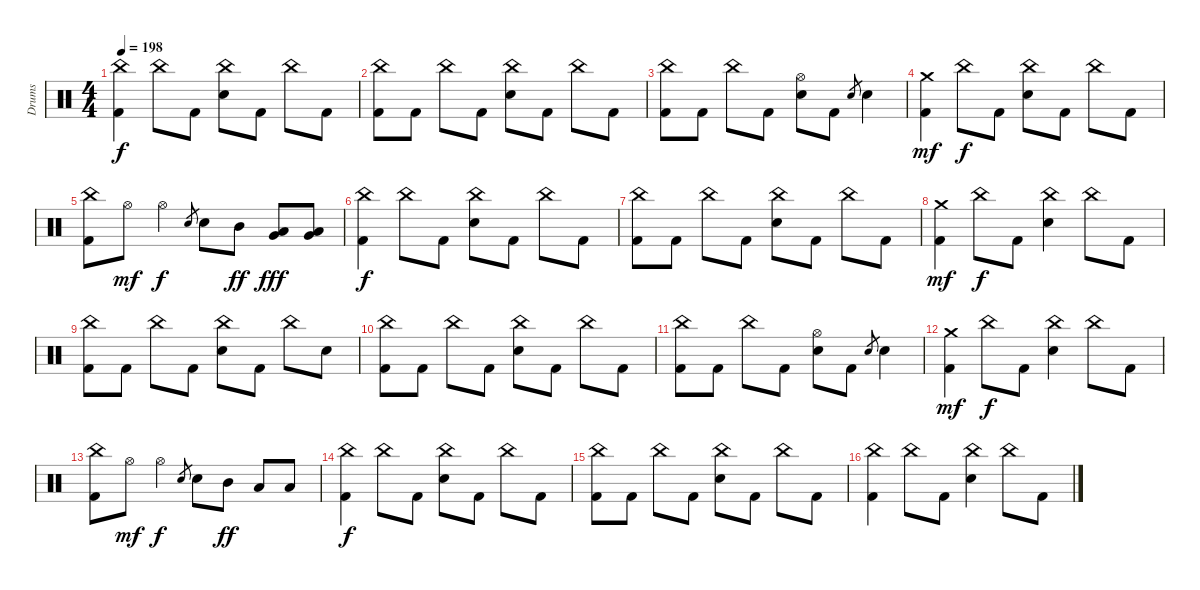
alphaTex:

\track ("Drums" "Drums") {instrument percussion}
\staff {score}
\articulation defaults
\ts (4 4)
\tempo 198
\clef neutral
\ks c
("China (hit)" "Kick (hit) 2").4{dy f} "China (hit)".8 "Kick (hit) 2".8 ("China (hit)" "Snare (hit) 2").8 "Kick (hit) 2".8 "China (hit)".8 "Kick (hit) 2".8 |
("China (hit)" "Kick (hit) 2").8 "Kick (hit) 2".8 "China (hit)".8 "Kick (hit) 2".8 ("China (hit)" "Snare (hit) 2").8 "Kick (hit) 2".8 "China (hit)".8 "Kick (hit) 2".8 |
("China (hit)" "Kick (hit) 2").8 "Kick (hit) 2".8 "China (hit)".8 "Kick (hit) 2".8 ("Hi-Hat (open)" "Snare (hit) 2").8 "Kick (hit) 2".8 "Snare (hit) 2".8{gr} "Snare (hit) 2".4 |
("Crash medium (hit)" "Kick (hit) 2").4{dy mf} "China (hit)".8{dy f} "Kick (hit) 2".8 ("China (hit)" "Snare (hit) 2").8 "Kick (hit) 2".8 "China (hit)".8 "Kick (hit) 2".8 |
("China (hit)" "Kick (hit) 2").8 "Hi-Hat (open)".8{dy mf} "Hi-Hat (open)".4{dy f} "Snare (hit) 2".8{gr} "Snare (hit) 2".8 "Mid Tom (hit)".8{dy ff} ("Very Low Tom (hit)" "Low Floor Tom (hit)").8{dy fff} ("Very Low Tom (hit)" "Low Floor Tom (hit)").8 |
("China (hit)" "Kick (hit) 2").4{dy f} "China (hit)".8 "Kick (hit) 2".8 ("China (hit)" "Snare (hit) 2").8 "Kick (hit) 2".8 "China (hit)".8 "Kick (hit) 2".8 |
("China (hit)" "Kick (hit) 2").8 "Kick (hit) 2".8 "China (hit)".8 "Kick (hit) 2".8 ("China (hit)" "Snare (hit) 2").8 "Kick (hit) 2".8 "China (hit)".8 "Kick (hit) 2".8 |
("Crash medium (hit)" "Kick (hit) 2").4{dy mf} "China (hit)".8{dy f} "Kick (hit) 2".8 ("China (hit)" "Snare (hit) 2").4 "China (hit)".8 "Kick (hit) 2".8 |
("China (hit)" "Kick (hit) 2").8 "Kick (hit) 2".8 "China (hit)".8 "Kick (hit) 2".8 ("China (hit)" "Snare (hit) 2").8 "Kick (hit) 2".8 "China (hit)".8 "Snare (hit) 2".8 |
("China (hit)" "Kick (hit) 2").8 "Kick (hit) 2".8 "China (hit)".8 "Kick (hit) 2".8 ("China (hit)" "Snare (hit) 2").8 "Kick (hit) 2".8 "China (hit)".8 "Kick (hit) 2".8 |
("China (hit)" "Kick (hit) 2").8 "Kick (hit) 2".8 "China (hit)".8 "Kick (hit) 2".8 ("Hi-Hat (open)" "Snare (hit) 2").8 "Kick (hit) 2".8 "Snare (hit) 2".8{gr} "Snare (hit) 2".4 |
("Crash medium (hit)" "Kick (hit) 2").4{dy mf} "China (hit)".8{dy f} "Kick (hit) 2".8 ("China (hit)" "Snare (hit) 2").4 "China (hit)".8 "Kick (hit) 2".8 |
("China (hit)" "Kick (hit) 2").8 "Hi-Hat (open)".8{dy mf} "Hi-Hat (open)".4{dy f} "Snare (hit) 2".8{gr} "Snare (hit) 2".8 "Mid Tom (hit)".8{dy ff} "Low Tom (hit)".8 "Low Tom (hit)".8 |
("China (hit)" "Kick (hit) 2").4{dy f} "China (hit)".8 "Kick (hit) 2".8 ("China (hit)" "Snare (hit) 2").8 "Kick (hit) 2".8 "China (hit)".8 "Kick (hit) 2".8 |
("China (hit)" "Kick (hit) 2").8 "Kick (hit) 2".8 "China (hit)".8 "Kick (hit) 2".8 ("China (hit)" "Snare (hit) 2").8 "Kick (hit) 2".8 "China (hit)".8 "Kick (hit) 2".8 |
("China (hit)" "Kick (hit) 2").4 "China (hit)".8 "Kick (hit) 2".8 ("China (hit)" "Snare (hit) 2").4 "China (hit)".8 "Kick (hit) 2".8
